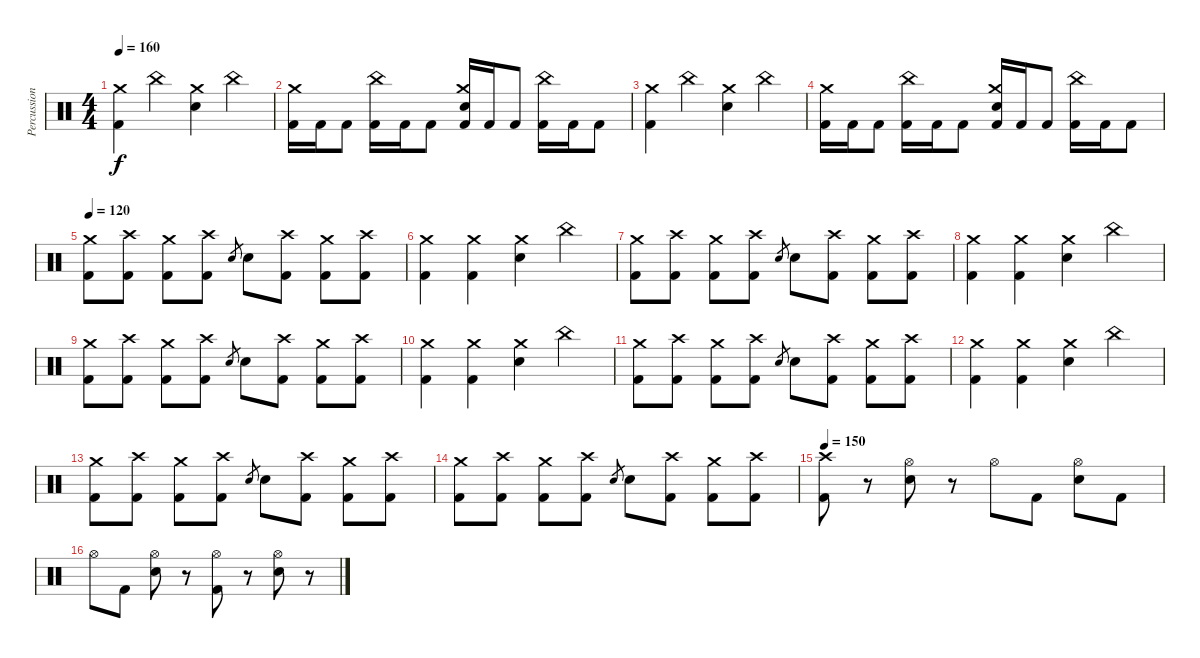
\track ("Percussion" "Percussion") {instrument percussion}
\staff {score}
\articulation defaults
\ts (4 4)
\tempo 160
\clef neutral
\ks c
("Kick (hit) 2" "Crash medium (hit)").4{dy f} "China (hit)".4 ("Electric Snare (hit)" "Crash medium (hit)").4 "China (hit)".4 |
("Kick (hit) 2" "Crash medium (hit)").16 "Kick (hit) 2".16 "Kick (hit) 2".8 ("Kick (hit) 2" "China (hit)").16 "Kick (hit) 2".16 "Kick (hit) 2".8 ("Kick (hit) 2" "Electric Snare (hit)" "Crash medium (hit)").16 "Kick (hit) 2".16 "Kick (hit) 2".8 ("Kick (hit) 2" "China (hit)").16 "Kick (hit) 2".16 "Kick (hit) 2".8 |
("Kick (hit) 2" "Crash medium (hit)").4 "China (hit)".4 ("Electric Snare (hit)" "Crash medium (hit)").4 "China (hit)".4 |
("Kick (hit) 2" "Crash medium (hit)").16 "Kick (hit) 2".16 "Kick (hit) 2".8 ("Kick (hit) 2" "China (hit)").16 "Kick (hit) 2".16 "Kick (hit) 2".8 ("Kick (hit) 2" "Electric Snare (hit)" "Crash medium (hit)").16 "Kick (hit) 2".16 "Kick (hit) 2".8 ("Kick (hit) 2" "China (hit)").16 "Kick (hit) 2".16 "Kick (hit) 2".8 |
\tempo 120
("Kick (hit) 2" "Crash medium (hit)").8 ("Kick (hit) 2" "Crash high (hit)").8 ("Kick (hit) 2" "Crash medium (hit)").8 ("Kick (hit) 2" "Crash high (hit)").8 "Electric Snare (hit)".8{gr} "Electric Snare (hit)".8 ("Kick (hit) 2" "Crash high (hit)").8 ("Kick (hit) 2" "Crash medium (hit)").8 ("Kick (hit) 2" "Crash high (hit)").8 |
("Kick (hit) 2" "Crash medium (hit)").4 ("Kick (hit) 2" "Crash medium (hit)").4 ("Electric Snare (hit)" "Crash medium (hit)").4 "China (hit)".4 |
("Kick (hit) 2" "Crash medium (hit)").8 ("Kick (hit) 2" "Crash high (hit)").8 ("Kick (hit) 2" "Crash medium (hit)").8 ("Kick (hit) 2" "Crash high (hit)").8 "Electric Snare (hit)".8{gr} "Electric Snare (hit)".8 ("Kick (hit) 2" "Crash high (hit)").8 ("Kick (hit) 2" "Crash medium (hit)").8 ("Kick (hit) 2" "Crash high (hit)").8 |
("Kick (hit) 2" "Crash medium (hit)").4 ("Kick (hit) 2" "Crash medium (hit)").4 ("Electric Snare (hit)" "Crash medium (hit)").4 "China (hit)".4 |
("Kick (hit) 2" "Crash medium (hit)").8 ("Kick (hit) 2" "Crash high (hit)").8 ("Kick (hit) 2" "Crash medium (hit)").8 ("Kick (hit) 2" "Crash high (hit)").8 "Electric Snare (hit)".8{gr} "Electric Snare (hit)".8 ("Kick (hit) 2" "Crash high (hit)").8 ("Kick (hit) 2" "Crash medium (hit)").8 ("Kick (hit) 2" "Crash high (hit)").8 |
("Kick (hit) 2" "Crash medium (hit)").4 ("Kick (hit) 2" "Crash medium (hit)").4 ("Electric Snare (hit)" "Crash medium (hit)").4 "China (hit)".4 |
("Kick (hit) 2" "Crash medium (hit)").8 ("Kick (hit) 2" "Crash high (hit)").8 ("Kick (hit) 2" "Crash medium (hit)").8 ("Kick (hit) 2" "Crash high (hit)").8 "Electric Snare (hit)".8{gr} "Electric Snare (hit)".8 ("Kick (hit) 2" "Crash high (hit)").8 ("Kick (hit) 2" "Crash medium (hit)").8 ("Kick (hit) 2" "Crash high (hit)").8 |
("Kick (hit) 2" "Crash medium (hit)").4 ("Kick (hit) 2" "Crash medium (hit)").4 ("Electric Snare (hit)" "Crash medium (hit)").4 "China (hit)".4 |
("Kick (hit) 2" "Crash medium (hit)").8 ("Kick (hit) 2" "Crash high (hit)").8 ("Kick (hit) 2" "Crash medium (hit)").8 ("Kick (hit) 2" "Crash high (hit)").8 "Electric Snare (hit)".8{gr} "Electric Snare (hit)".8 ("Kick (hit) 2" "Crash high (hit)").8 ("Kick (hit) 2" "Crash medium (hit)").8 ("Kick (hit) 2" "Crash high (hit)").8 |
("Kick (hit) 2" "Crash medium (hit)").8 ("Kick (hit) 2" "Crash high (hit)").8 ("Kick (hit) 2" "Crash medium (hit)").8 ("Kick (hit) 2" "Crash high (hit)").8 "Electric Snare (hit)".8{gr} "Electric Snare (hit)".8 ("Kick (hit) 2" "Crash high (hit)").8 ("Kick (hit) 2" "Crash medium (hit)").8 ("Kick (hit) 2" "Crash high (hit)").8 |
\tempo 150
("Kick (hit) 2" "Crash high (hit)").8 r.8 ("Electric Snare (hit)" "Hi-Hat (open)").8 r.8 "Hi-Hat (open)".8 "Kick (hit) 2".8 ("Electric Snare (hit)" "Hi-Hat (open)").8 "Kick (hit) 2".8 |
"Hi-Hat (open)".8 "Kick (hit) 2".8 ("Electric Snare (hit)" "Hi-Hat (open)").8 r.8 ("Kick (hit) 2" "Hi-Hat (open)").8 r.8 ("Electric Snare (hit)" "Hi-Hat (open)").8 r.8
